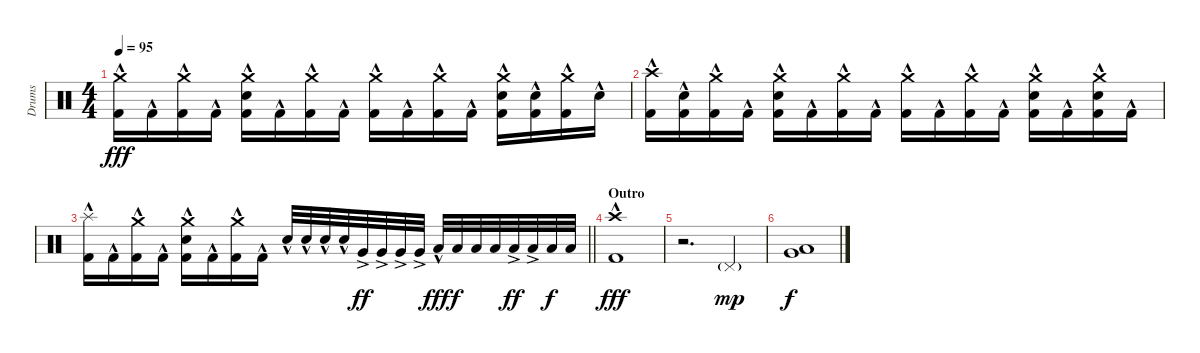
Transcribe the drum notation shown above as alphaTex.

\track ("Drums" "Drums") {instrument percussion}
\staff {score}
\articulation defaults
\ts (4 4)
\tempo 95
\clef neutral
\ks c
("Crash medium (hit)" "Kick (hit) 2"{hac}).16{dy fff} "Kick (hit) 2"{hac}.16 ("Crash medium (hit)" "Kick (hit) 2"{hac}).16 "Kick (hit) 2"{hac}.16 ("Crash medium (hit)" "Electric Snare (hit)"{hac} "Kick (hit) 2"{hac}).16 "Kick (hit) 2"{hac}.16 ("Crash medium (hit)" "Kick (hit) 2"{hac}).16 "Kick (hit) 2"{hac}.16 ("Crash medium (hit)" "Kick (hit) 2"{hac}).16 "Kick (hit) 2"{hac}.16 ("Crash medium (hit)" "Kick (hit) 2"{hac}).16 "Kick (hit) 2"{hac}.16 ("Crash medium (hit)" "Electric Snare (hit)"{hac} "Kick (hit) 2"{hac}).16 ("Electric Snare (hit)"{hac} "Kick (hit) 2"{hac}).16 ("Crash medium (hit)" "Kick (hit) 2"{hac}).16 "Electric Snare (hit)"{hac}.16 |
("Crash high (hit)" "Kick (hit) 2"{hac}).16 ("Electric Snare (hit)"{hac} "Kick (hit) 2"{hac}).16 ("Crash medium (hit)" "Kick (hit) 2"{hac}).16 "Kick (hit) 2"{hac}.16 ("Crash medium (hit)" "Electric Snare (hit)"{hac} "Kick (hit) 2"{hac}).16 "Kick (hit) 2"{hac}.16 ("Crash medium (hit)" "Kick (hit) 2"{hac}).16 "Kick (hit) 2"{hac}.16 ("Crash medium (hit)" "Kick (hit) 2"{hac}).16 "Kick (hit) 2"{hac}.16 ("Crash medium (hit)" "Kick (hit) 2"{hac}).16 "Kick (hit) 2"{hac}.16 ("Crash medium (hit)" "Electric Snare (hit)"{hac} "Kick (hit) 2"{hac}).16 "Kick (hit) 2"{hac}.16 ("Crash medium (hit)" "Electric Snare (hit)"{hac} "Kick (hit) 2"{hac}).16 "Kick (hit) 2"{hac}.16 |
\barLineRight lightlight
("Splash (hit)"{hac} "Kick (hit) 2"{hac}).16 "Kick (hit) 2"{hac}.16 ("Crash medium (hit)" "Kick (hit) 2"{hac}).16 "Kick (hit) 2"{hac}.16 ("Crash medium (hit)" "Electric Snare (hit)"{hac} "Kick (hit) 2"{hac}).16 "Kick (hit) 2"{hac}.16 ("Crash medium (hit)" "Kick (hit) 2"{hac}).16 "Kick (hit) 2"{hac}.16 "Electric Snare (hit)"{hac}.32 "Electric Snare (hit)"{hac}.32 "Electric Snare (hit)"{hac}.32 "Electric Snare (hit)"{hac}.32 "Very Low Tom (hit)"{ac}.32{dy ff} "Very Low Tom (hit)"{ac}.32 "Very Low Tom (hit)"{ac}.32 "Very Low Tom (hit)"{ac}.32 "Low Tom (hit)"{hac}.32{dy fff} "Low Tom (hit)".32{dy f} "Low Tom (hit)".32 "Low Tom (hit)".32 "Low Floor Tom (hit)"{ac}.32{dy ff} "Low Floor Tom (hit)"{ac}.32 "Low Floor Tom (hit)".32{dy f} "Low Floor Tom (hit)".32 |
\section ("" "Outro")
("Crash high (hit)" "Kick (hit) 2"{hac}).1{dy fff} |
r.2{d} "Pedal Hi-Hat (hit)"{g}.4{dy mp} |
("Low Floor Tom (hit)" "Very Low Tom (hit)").1{bd 60 dy f}
